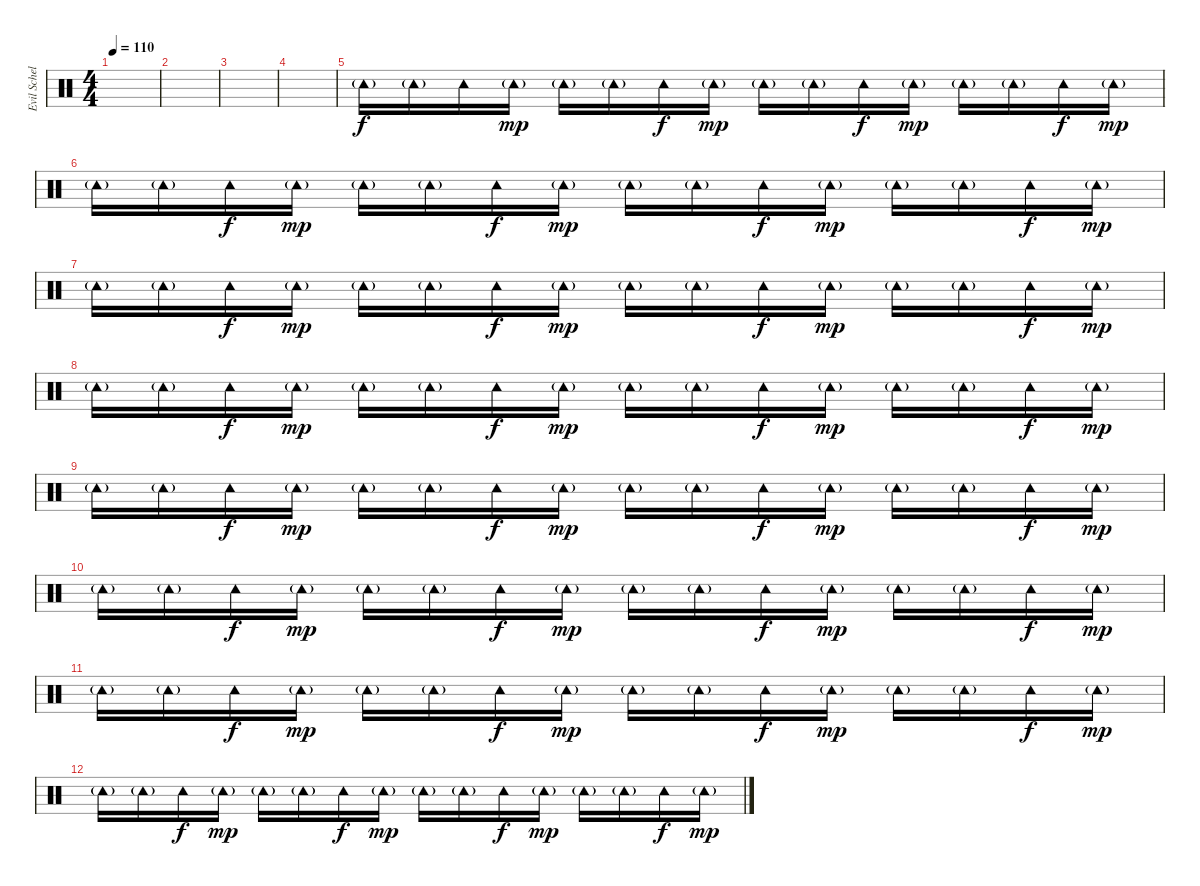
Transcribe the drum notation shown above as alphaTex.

\track ("Evil Schellenkranz" "Evil Schel") {instrument percussion}
\staff {score}
\articulation defaults
\ts (4 4)
\tempo 110
\clef neutral
\ks c
|
|
|
|
"Tambourine (hit)"{g}.16 "Tambourine (hit)"{g}.16 "Tambourine (hit)".16{dy f} "Tambourine (hit)"{g}.16{dy mp} "Tambourine (hit)"{g}.16 "Tambourine (hit)"{g}.16 "Tambourine (hit)".16{dy f} "Tambourine (hit)"{g}.16{dy mp} "Tambourine (hit)"{g}.16 "Tambourine (hit)"{g}.16 "Tambourine (hit)".16{dy f} "Tambourine (hit)"{g}.16{dy mp} "Tambourine (hit)"{g}.16 "Tambourine (hit)"{g}.16 "Tambourine (hit)".16{dy f} "Tambourine (hit)"{g}.16{dy mp} |
"Tambourine (hit)"{g}.16 "Tambourine (hit)"{g}.16 "Tambourine (hit)".16{dy f} "Tambourine (hit)"{g}.16{dy mp} "Tambourine (hit)"{g}.16 "Tambourine (hit)"{g}.16 "Tambourine (hit)".16{dy f} "Tambourine (hit)"{g}.16{dy mp} "Tambourine (hit)"{g}.16 "Tambourine (hit)"{g}.16 "Tambourine (hit)".16{dy f} "Tambourine (hit)"{g}.16{dy mp} "Tambourine (hit)"{g}.16 "Tambourine (hit)"{g}.16 "Tambourine (hit)".16{dy f} "Tambourine (hit)"{g}.16{dy mp} |
"Tambourine (hit)"{g}.16 "Tambourine (hit)"{g}.16 "Tambourine (hit)".16{dy f} "Tambourine (hit)"{g}.16{dy mp} "Tambourine (hit)"{g}.16 "Tambourine (hit)"{g}.16 "Tambourine (hit)".16{dy f} "Tambourine (hit)"{g}.16{dy mp} "Tambourine (hit)"{g}.16 "Tambourine (hit)"{g}.16 "Tambourine (hit)".16{dy f} "Tambourine (hit)"{g}.16{dy mp} "Tambourine (hit)"{g}.16 "Tambourine (hit)"{g}.16 "Tambourine (hit)".16{dy f} "Tambourine (hit)"{g}.16{dy mp} |
"Tambourine (hit)"{g}.16 "Tambourine (hit)"{g}.16 "Tambourine (hit)".16{dy f} "Tambourine (hit)"{g}.16{dy mp} "Tambourine (hit)"{g}.16 "Tambourine (hit)"{g}.16 "Tambourine (hit)".16{dy f} "Tambourine (hit)"{g}.16{dy mp} "Tambourine (hit)"{g}.16 "Tambourine (hit)"{g}.16 "Tambourine (hit)".16{dy f} "Tambourine (hit)"{g}.16{dy mp} "Tambourine (hit)"{g}.16 "Tambourine (hit)"{g}.16 "Tambourine (hit)".16{dy f} "Tambourine (hit)"{g}.16{dy mp} |
"Tambourine (hit)"{g}.16 "Tambourine (hit)"{g}.16 "Tambourine (hit)".16{dy f} "Tambourine (hit)"{g}.16{dy mp} "Tambourine (hit)"{g}.16 "Tambourine (hit)"{g}.16 "Tambourine (hit)".16{dy f} "Tambourine (hit)"{g}.16{dy mp} "Tambourine (hit)"{g}.16 "Tambourine (hit)"{g}.16 "Tambourine (hit)".16{dy f} "Tambourine (hit)"{g}.16{dy mp} "Tambourine (hit)"{g}.16 "Tambourine (hit)"{g}.16 "Tambourine (hit)".16{dy f} "Tambourine (hit)"{g}.16{dy mp} |
"Tambourine (hit)"{g}.16 "Tambourine (hit)"{g}.16 "Tambourine (hit)".16{dy f} "Tambourine (hit)"{g}.16{dy mp} "Tambourine (hit)"{g}.16 "Tambourine (hit)"{g}.16 "Tambourine (hit)".16{dy f} "Tambourine (hit)"{g}.16{dy mp} "Tambourine (hit)"{g}.16 "Tambourine (hit)"{g}.16 "Tambourine (hit)".16{dy f} "Tambourine (hit)"{g}.16{dy mp} "Tambourine (hit)"{g}.16 "Tambourine (hit)"{g}.16 "Tambourine (hit)".16{dy f} "Tambourine (hit)"{g}.16{dy mp} |
"Tambourine (hit)"{g}.16 "Tambourine (hit)"{g}.16 "Tambourine (hit)".16{dy f} "Tambourine (hit)"{g}.16{dy mp} "Tambourine (hit)"{g}.16 "Tambourine (hit)"{g}.16 "Tambourine (hit)".16{dy f} "Tambourine (hit)"{g}.16{dy mp} "Tambourine (hit)"{g}.16 "Tambourine (hit)"{g}.16 "Tambourine (hit)".16{dy f} "Tambourine (hit)"{g}.16{dy mp} "Tambourine (hit)"{g}.16 "Tambourine (hit)"{g}.16 "Tambourine (hit)".16{dy f} "Tambourine (hit)"{g}.16{dy mp} |
"Tambourine (hit)"{g}.16 "Tambourine (hit)"{g}.16 "Tambourine (hit)".16{dy f} "Tambourine (hit)"{g}.16{dy mp} "Tambourine (hit)"{g}.16 "Tambourine (hit)"{g}.16 "Tambourine (hit)".16{dy f} "Tambourine (hit)"{g}.16{dy mp} "Tambourine (hit)"{g}.16 "Tambourine (hit)"{g}.16 "Tambourine (hit)".16{dy f} "Tambourine (hit)"{g}.16{dy mp} "Tambourine (hit)"{g}.16 "Tambourine (hit)"{g}.16 "Tambourine (hit)".16{dy f} "Tambourine (hit)"{g}.16{dy mp}
